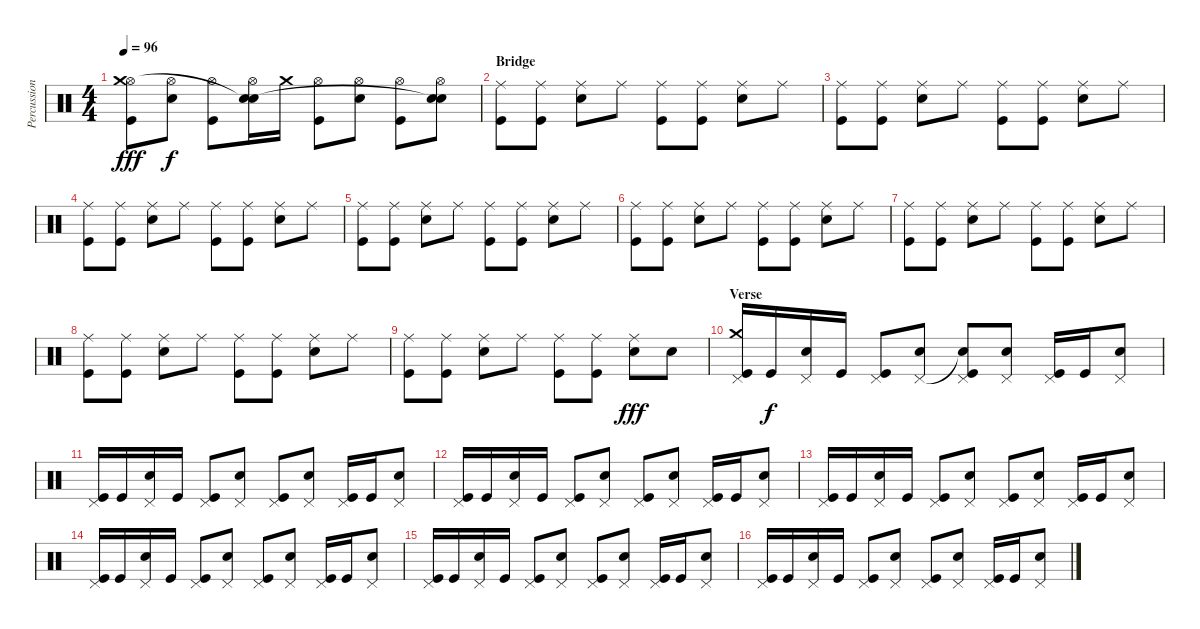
\track ("Percussion" "Percussion") {instrument percussion}
\staff {score}
\articulation defaults
\ts (4 4)
\tempo 96
\clef neutral
\ks c
("Hi-Hat (open)" "Kick (hit)" "Crash medium (hit)").8{dy fff} ("Hi-Hat (open)" "Electric Snare (hit)").8{dy f} ("Hi-Hat (open)" "Kick (hit)").8 ("Hi-Hat (open)" "Electric Snare (hit)" "Snare (hit)"{t}).16 "Crash medium (hit)".16 ("Hi-Hat (open)" "Kick (hit)").8 ("Hi-Hat (open)" "Electric Snare (hit)").8 ("Hi-Hat (open)" "Kick (hit)").8 ("Hi-Hat (open)" "Electric Snare (hit)" "Snare (hit)"{t}).8 |
\section ("" "Bridge")
("Ride (middle)" "Kick (hit)").8 ("Ride (middle)" "Kick (hit)").8 ("Ride (middle)" "Electric Snare (hit)").8 "Ride (middle)".8 ("Ride (middle)" "Kick (hit)").8 ("Ride (middle)" "Kick (hit)").8 ("Ride (middle)" "Electric Snare (hit)").8 "Ride (middle)".8 |
("Ride (middle)" "Kick (hit)").8 ("Ride (middle)" "Kick (hit)").8 ("Ride (middle)" "Electric Snare (hit)").8 "Ride (middle)".8 ("Ride (middle)" "Kick (hit)").8 ("Ride (middle)" "Kick (hit)").8 ("Ride (middle)" "Electric Snare (hit)").8 "Ride (middle)".8 |
("Ride (middle)" "Kick (hit)").8 ("Ride (middle)" "Kick (hit)").8 ("Ride (middle)" "Electric Snare (hit)").8 "Ride (middle)".8 ("Ride (middle)" "Kick (hit)").8 ("Ride (middle)" "Kick (hit)").8 ("Ride (middle)" "Electric Snare (hit)").8 "Ride (middle)".8 |
("Ride (middle)" "Kick (hit)").8 ("Ride (middle)" "Kick (hit)").8 ("Ride (middle)" "Electric Snare (hit)").8 "Ride (middle)".8 ("Ride (middle)" "Kick (hit)").8 ("Ride (middle)" "Kick (hit)").8 ("Ride (middle)" "Electric Snare (hit)").8 "Ride (middle)".8 |
("Ride (middle)" "Kick (hit)").8 ("Ride (middle)" "Kick (hit)").8 ("Ride (middle)" "Electric Snare (hit)").8 "Ride (middle)".8 ("Ride (middle)" "Kick (hit)").8 ("Ride (middle)" "Kick (hit)").8 ("Ride (middle)" "Electric Snare (hit)").8 "Ride (middle)".8 |
("Ride (middle)" "Kick (hit)").8 ("Ride (middle)" "Kick (hit)").8 ("Ride (middle)" "Electric Snare (hit)").8 "Ride (middle)".8 ("Ride (middle)" "Kick (hit)").8 ("Ride (middle)" "Kick (hit)").8 ("Ride (middle)" "Electric Snare (hit)").8 "Ride (middle)".8 |
("Ride (middle)" "Kick (hit)").8 ("Ride (middle)" "Kick (hit)").8 ("Ride (middle)" "Electric Snare (hit)").8 "Ride (middle)".8 ("Ride (middle)" "Kick (hit)").8 ("Ride (middle)" "Kick (hit)").8 ("Ride (middle)" "Electric Snare (hit)").8 "Ride (middle)".8 |
("Ride (middle)" "Kick (hit)").8 ("Ride (middle)" "Kick (hit)").8 ("Ride (middle)" "Electric Snare (hit)").8 "Ride (middle)".8 ("Ride (middle)" "Kick (hit)").8 ("Ride (middle)" "Kick (hit)").8 ("Ride (middle)" "Electric Snare (hit)").8{dy fff} "Electric Snare (hit)".8 |
\section ("" "Verse")
("Kick (hit)" "Crash medium (hit)" "Pedal Hi-Hat (hit)").16 "Kick (hit)".16{dy f} ("Electric Snare (hit)" "Pedal Hi-Hat (hit)").16 "Kick (hit)".16 ("Kick (hit)" "Pedal Hi-Hat (hit)").8 ("Electric Snare (hit)" "Pedal Hi-Hat (hit)").8 ("Kick (hit)" "Snare (hit)"{t} "Pedal Hi-Hat (hit)").8 ("Electric Snare (hit)" "Pedal Hi-Hat (hit)").8 ("Kick (hit)" "Pedal Hi-Hat (hit)").16 "Kick (hit)".16 ("Electric Snare (hit)" "Pedal Hi-Hat (hit)").8 |
("Kick (hit)" "Pedal Hi-Hat (hit)").16 "Kick (hit)".16 ("Electric Snare (hit)" "Pedal Hi-Hat (hit)").16 "Kick (hit)".16 ("Kick (hit)" "Pedal Hi-Hat (hit)").8 ("Electric Snare (hit)" "Pedal Hi-Hat (hit)").8 ("Kick (hit)" "Pedal Hi-Hat (hit)").8 ("Electric Snare (hit)" "Pedal Hi-Hat (hit)").8 ("Kick (hit)" "Pedal Hi-Hat (hit)").16 "Kick (hit)".16 ("Electric Snare (hit)" "Pedal Hi-Hat (hit)").8 |
("Kick (hit)" "Pedal Hi-Hat (hit)").16 "Kick (hit)".16 ("Electric Snare (hit)" "Pedal Hi-Hat (hit)").16 "Kick (hit)".16 ("Kick (hit)" "Pedal Hi-Hat (hit)").8 ("Electric Snare (hit)" "Pedal Hi-Hat (hit)").8 ("Kick (hit)" "Pedal Hi-Hat (hit)").8 ("Electric Snare (hit)" "Pedal Hi-Hat (hit)").8 ("Kick (hit)" "Pedal Hi-Hat (hit)").16 "Kick (hit)".16 ("Electric Snare (hit)" "Pedal Hi-Hat (hit)").8 |
("Kick (hit)" "Pedal Hi-Hat (hit)").16 "Kick (hit)".16 ("Electric Snare (hit)" "Pedal Hi-Hat (hit)").16 "Kick (hit)".16 ("Kick (hit)" "Pedal Hi-Hat (hit)").8 ("Electric Snare (hit)" "Pedal Hi-Hat (hit)").8 ("Kick (hit)" "Pedal Hi-Hat (hit)").8 ("Electric Snare (hit)" "Pedal Hi-Hat (hit)").8 ("Kick (hit)" "Pedal Hi-Hat (hit)").16 "Kick (hit)".16 ("Electric Snare (hit)" "Pedal Hi-Hat (hit)").8 |
("Kick (hit)" "Pedal Hi-Hat (hit)").16 "Kick (hit)".16 ("Electric Snare (hit)" "Pedal Hi-Hat (hit)").16 "Kick (hit)".16 ("Kick (hit)" "Pedal Hi-Hat (hit)").8 ("Electric Snare (hit)" "Pedal Hi-Hat (hit)").8 ("Kick (hit)" "Pedal Hi-Hat (hit)").8 ("Electric Snare (hit)" "Pedal Hi-Hat (hit)").8 ("Kick (hit)" "Pedal Hi-Hat (hit)").16 "Kick (hit)".16 ("Electric Snare (hit)" "Pedal Hi-Hat (hit)").8 |
("Kick (hit)" "Pedal Hi-Hat (hit)").16 "Kick (hit)".16 ("Electric Snare (hit)" "Pedal Hi-Hat (hit)").16 "Kick (hit)".16 ("Kick (hit)" "Pedal Hi-Hat (hit)").8 ("Electric Snare (hit)" "Pedal Hi-Hat (hit)").8 ("Kick (hit)" "Pedal Hi-Hat (hit)").8 ("Electric Snare (hit)" "Pedal Hi-Hat (hit)").8 ("Kick (hit)" "Pedal Hi-Hat (hit)").16 "Kick (hit)".16 ("Electric Snare (hit)" "Pedal Hi-Hat (hit)").8 |
("Kick (hit)" "Pedal Hi-Hat (hit)").16 "Kick (hit)".16 ("Electric Snare (hit)" "Pedal Hi-Hat (hit)").16 "Kick (hit)".16 ("Kick (hit)" "Pedal Hi-Hat (hit)").8 ("Electric Snare (hit)" "Pedal Hi-Hat (hit)").8 ("Kick (hit)" "Pedal Hi-Hat (hit)").8 ("Electric Snare (hit)" "Pedal Hi-Hat (hit)").8 ("Kick (hit)" "Pedal Hi-Hat (hit)").16 "Kick (hit)".16 ("Electric Snare (hit)" "Pedal Hi-Hat (hit)").8
